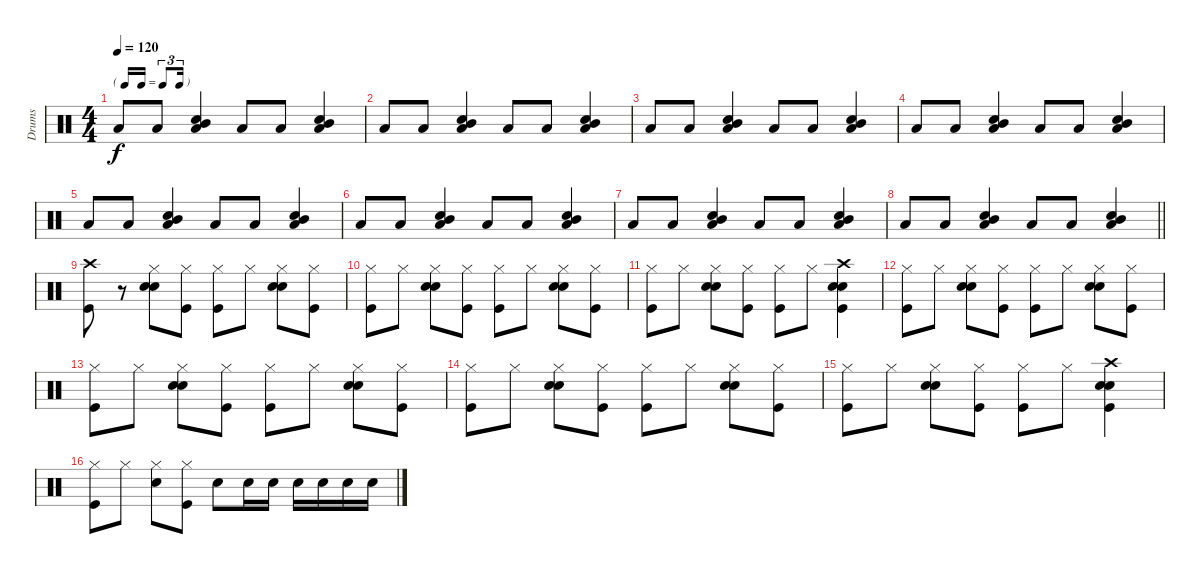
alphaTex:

\track ("Drums" "Drums") {instrument percussion}
\staff {score}
\articulation defaults
\ts (4 4)
\tf triplet16th
\tempo 120
\clef neutral
\ks c "Low Tom (hit)".8{dy f} "Low Tom (hit)".8
("Hand Clap (hit)" "Mid Tom (hit)" "Low Tom (hit)").4 "Low Tom (hit)".8 "Low Tom (hit)".8 ("Hand Clap (hit)" "Mid Tom (hit)" "Low Tom (hit)").4 |
"Low Tom (hit)".8 "Low Tom (hit)".8 ("Hand Clap (hit)" "Mid Tom (hit)" "Low Tom (hit)").4 "Low Tom (hit)".8 "Low Tom (hit)".8 ("Hand Clap (hit)" "Mid Tom (hit)" "Low Tom (hit)").4 |
"Low Tom (hit)".8 "Low Tom (hit)".8 ("Hand Clap (hit)" "Mid Tom (hit)" "Low Tom (hit)").4 "Low Tom (hit)".8 "Low Tom (hit)".8 ("Hand Clap (hit)" "Mid Tom (hit)" "Low Tom (hit)").4 |
"Low Tom (hit)".8 "Low Tom (hit)".8 ("Hand Clap (hit)" "Mid Tom (hit)" "Low Tom (hit)").4 "Low Tom (hit)".8 "Low Tom (hit)".8 ("Hand Clap (hit)" "Mid Tom (hit)" "Low Tom (hit)").4 |
"Low Tom (hit)".8 "Low Tom (hit)".8 ("Hand Clap (hit)" "Mid Tom (hit)" "Low Tom (hit)").4 "Low Tom (hit)".8 "Low Tom (hit)".8 ("Hand Clap (hit)" "Mid Tom (hit)" "Low Tom (hit)").4 |
"Low Tom (hit)".8 "Low Tom (hit)".8 ("Hand Clap (hit)" "Mid Tom (hit)" "Low Tom (hit)").4 "Low Tom (hit)".8 "Low Tom (hit)".8 ("Hand Clap (hit)" "Mid Tom (hit)" "Low Tom (hit)").4 |
"Low Tom (hit)".8 "Low Tom (hit)".8 ("Hand Clap (hit)" "Mid Tom (hit)" "Low Tom (hit)").4 "Low Tom (hit)".8 "Low Tom (hit)".8 ("Hand Clap (hit)" "Mid Tom (hit)" "Low Tom (hit)").4 |
\barLineRight lightlight "Low Tom (hit)".8 "Low Tom (hit)".8
("Hand Clap (hit)" "Mid Tom (hit)" "Low Tom (hit)").4 "Low Tom (hit)".8 "Low Tom (hit)".8 ("Hand Clap (hit)" "Mid Tom (hit)" "Low Tom (hit)").4 |
("Crash high (hit)" "Kick (hit)").8 r.8 ("Hi-Hat (closed)" "Snare (hit) 2" "Hand Clap (hit)").8 ("Hi-Hat (closed)" "Kick (hit)").8 ("Hi-Hat (closed)" "Kick (hit)").8 "Hi-Hat (closed)".8 ("Hi-Hat (closed)" "Snare (hit) 2" "Hand Clap (hit)").8 ("Hi-Hat (closed)" "Kick (hit)").8 |
("Hi-Hat (closed)" "Kick (hit)").8 "Hi-Hat (closed)".8 ("Hi-Hat (closed)" "Snare (hit) 2" "Hand Clap (hit)").8 ("Hi-Hat (closed)" "Kick (hit)").8 ("Hi-Hat (closed)" "Kick (hit)").8 "Hi-Hat (closed)".8 ("Hi-Hat (closed)" "Snare (hit) 2" "Hand Clap (hit)").8 ("Hi-Hat (closed)" "Kick (hit)").8 |
("Hi-Hat (closed)" "Kick (hit)").8 "Hi-Hat (closed)".8 ("Hi-Hat (closed)" "Snare (hit) 2" "Hand Clap (hit)").8 ("Hi-Hat (closed)" "Kick (hit)").8 ("Hi-Hat (closed)" "Kick (hit)").8 "Hi-Hat (closed)".8 ("Crash high (hit)" "Snare (hit) 2" "Hand Clap (hit)" "Kick (hit)").4 |
("Hi-Hat (closed)" "Kick (hit)").8 "Hi-Hat (closed)".8 ("Hi-Hat (closed)" "Snare (hit) 2" "Hand Clap (hit)").8 ("Hi-Hat (closed)" "Kick (hit)").8 ("Hi-Hat (closed)" "Kick (hit)").8 "Hi-Hat (closed)".8 ("Hi-Hat (closed)" "Snare (hit) 2" "Hand Clap (hit)").8 ("Hi-Hat (closed)" "Kick (hit)").8 |
("Hi-Hat (closed)" "Kick (hit)").8 "Hi-Hat (closed)".8 ("Hi-Hat (closed)" "Snare (hit) 2" "Hand Clap (hit)").8 ("Hi-Hat (closed)" "Kick (hit)").8 ("Hi-Hat (closed)" "Kick (hit)").8 "Hi-Hat (closed)".8 ("Hi-Hat (closed)" "Snare (hit) 2" "Hand Clap (hit)").8 ("Hi-Hat (closed)" "Kick (hit)").8 |
("Hi-Hat (closed)" "Kick (hit)").8 "Hi-Hat (closed)".8 ("Hi-Hat (closed)" "Snare (hit) 2" "Hand Clap (hit)").8 ("Hi-Hat (closed)" "Kick (hit)").8 ("Hi-Hat (closed)" "Kick (hit)").8 "Hi-Hat (closed)".8 ("Hi-Hat (closed)" "Snare (hit) 2" "Hand Clap (hit)").8 ("Hi-Hat (closed)" "Kick (hit)").8 |
("Hi-Hat (closed)" "Kick (hit)").8 "Hi-Hat (closed)".8 ("Hi-Hat (closed)" "Snare (hit) 2" "Hand Clap (hit)").8 ("Hi-Hat (closed)" "Kick (hit)").8 ("Hi-Hat (closed)" "Kick (hit)").8 "Hi-Hat (closed)".8 ("Crash high (hit)" "Snare (hit) 2" "Hand Clap (hit)" "Kick (hit)").4 |
("Hi-Hat (closed)" "Kick (hit)").8 "Hi-Hat (closed)".8 ("Hi-Hat (closed)" "Snare (hit) 2").8 ("Hi-Hat (closed)" "Kick (hit)").8 "Snare (hit) 2".8 "Snare (hit) 2".16 "Snare (hit) 2".16 "Snare (hit) 2".16 "Snare (hit) 2".16 "Snare (hit) 2".16 "Snare (hit) 2".16
